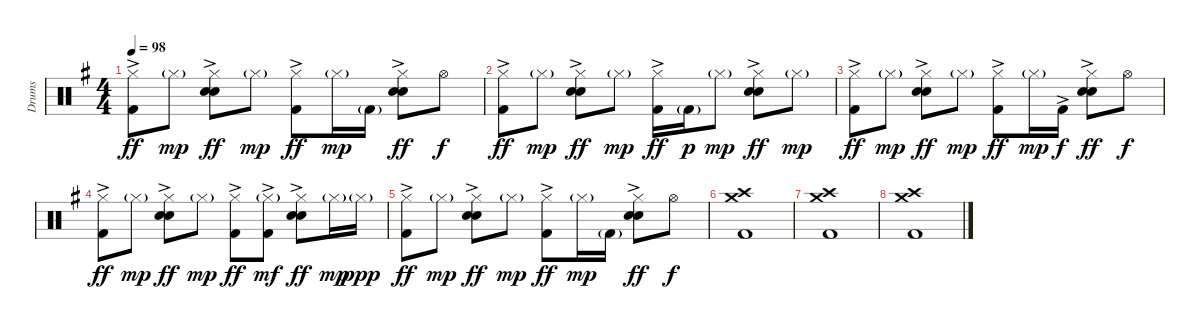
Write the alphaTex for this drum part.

\track ("Drums" "Drums") {instrument percussion}
\staff {score}
\articulation defaults
\ts (4 4)
\tempo 98
\clef neutral
\ks g
("Hi-Hat (closed)" "Kick (hit) 2"{ac}).8{dy ff} "Hi-Hat (closed)"{g}.8{dy mp} ("Hi-Hat (closed)" "Hand Clap (hit)" "Snare (hit) 2"{ac}).8{dy ff} "Hi-Hat (closed)"{g}.8{dy mp} ("Hi-Hat (closed)" "Kick (hit) 2"{ac}).8{dy ff} "Hi-Hat (closed)"{g}.16{dy mp} "Kick (hit) 2"{g}.16 ("Hi-Hat (closed)" "Hand Clap (hit)" "Snare (hit) 2"{ac}).8{dy ff} "Hi-Hat (open)".8{dy f} |
("Hi-Hat (closed)" "Kick (hit) 2"{ac}).8{dy ff} "Hi-Hat (closed)"{g}.8{dy mp} ("Hi-Hat (closed)" "Hand Clap (hit)" "Snare (hit) 2"{ac}).8{dy ff} "Hi-Hat (closed)"{g}.8{dy mp} ("Hi-Hat (closed)" "Kick (hit) 2"{ac}).16{dy ff} "Kick (hit) 2"{g}.16{dy p} "Hi-Hat (closed)"{g}.8{dy mp} ("Hi-Hat (closed)" "Hand Clap (hit)" "Snare (hit) 2"{ac}).8{dy ff} "Hi-Hat (closed)"{g}.8{dy mp} |
("Hi-Hat (closed)" "Kick (hit) 2"{ac}).8{dy ff} "Hi-Hat (closed)"{g}.8{dy mp} ("Hi-Hat (closed)" "Hand Clap (hit)" "Snare (hit) 2"{ac}).8{dy ff} "Hi-Hat (closed)"{g}.8{dy mp} ("Hi-Hat (closed)" "Kick (hit) 2"{ac}).8{dy ff} "Hi-Hat (closed)"{g}.16{dy mp} "Kick (hit) 2"{ac}.16{dy f} ("Hi-Hat (closed)" "Hand Clap (hit)" "Snare (hit) 2"{ac}).8{dy ff} "Hi-Hat (open)".8{dy f} |
("Hi-Hat (closed)" "Kick (hit) 2"{ac}).8{dy ff} "Hi-Hat (closed)"{g}.8{dy mp} ("Hi-Hat (closed)" "Hand Clap (hit)" "Snare (hit) 2"{ac}).8{dy ff} "Hi-Hat (closed)"{g}.8{dy mp} ("Hi-Hat (closed)" "Kick (hit) 2"{ac}).8{dy ff} ("Hi-Hat (closed)"{g} "Kick (hit) 2"{ac}).8{dy mf} ("Hi-Hat (closed)" "Hand Clap (hit)" "Snare (hit) 2"{ac}).8{dy ff} "Hi-Hat (closed)"{g}.16{dy mp} "Hi-Hat (closed)"{g}.16{dy ppp} |
("Hi-Hat (closed)" "Kick (hit) 2"{ac}).8{dy ff} "Hi-Hat (closed)"{g}.8{dy mp} ("Hi-Hat (closed)" "Hand Clap (hit)" "Snare (hit) 2"{ac}).8{dy ff} "Hi-Hat (closed)"{g}.8{dy mp} ("Hi-Hat (closed)" "Kick (hit) 2"{ac}).8{dy ff} "Hi-Hat (closed)"{g}.16{dy mp} "Kick (hit) 2"{g}.16 ("Hi-Hat (closed)" "Hand Clap (hit)" "Snare (hit) 2"{ac}).8{dy ff} "Hi-Hat (open)".8{dy f} |
("Crash high (hit)" "Crash medium (hit)" "Kick (hit) 2").1 |
("Crash high (hit)" "Crash medium (hit)" "Kick (hit) 2").1 |
("Crash high (hit)" "Crash medium (hit)" "Kick (hit) 2").1
